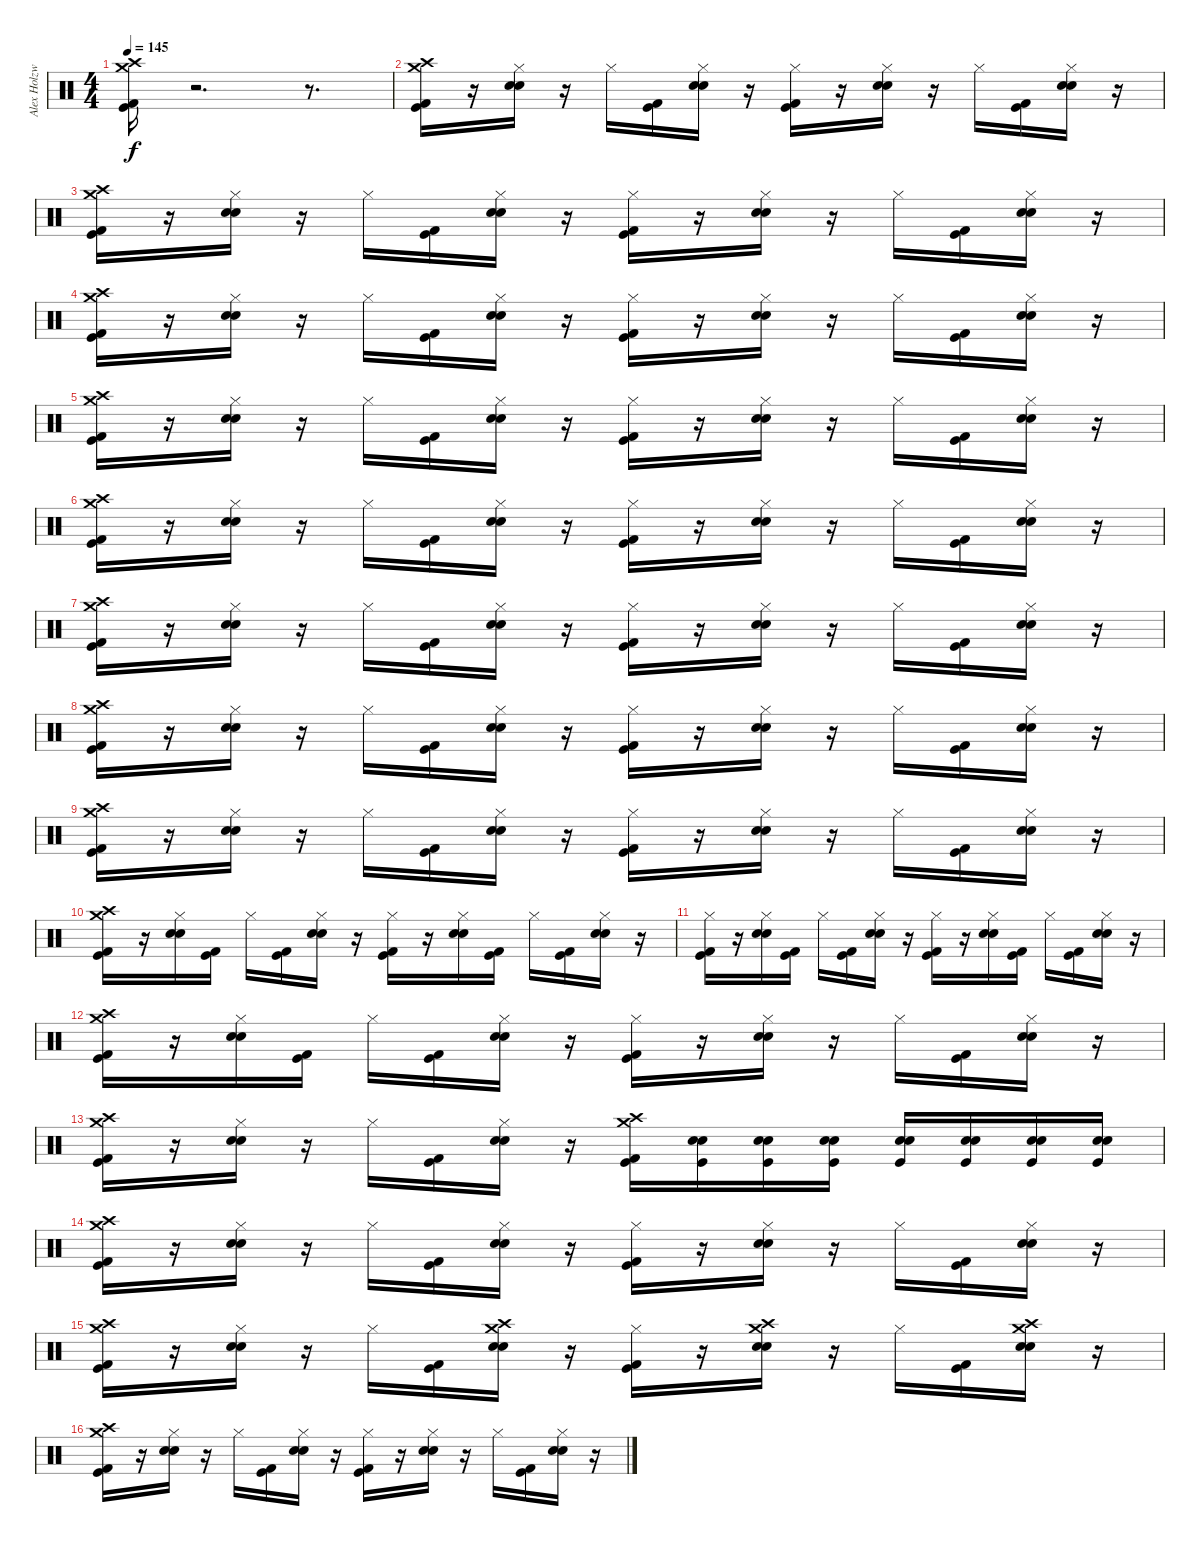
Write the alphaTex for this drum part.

\track ("Alex Holzwarth" "Alex Holzw") {instrument percussion}
\staff {score}
\articulation defaults
\ts (4 4)
\tempo 145
\clef neutral
\ks c
("Crash high (hit)" "Crash medium (hit)" "Kick (hit) 2" "Kick (hit)").16{dy f} r.2{d} r.8{d} |
("Crash medium (hit)" "Crash high (hit)" "Kick (hit) 2" "Kick (hit)").16 r.16 ("Hi-Hat (closed)" "Electric Snare (hit)" "Snare (hit) 2").16 r.16 "Hi-Hat (closed)".16 ("Kick (hit) 2" "Kick (hit)").16 ("Electric Snare (hit)" "Snare (hit) 2" "Hi-Hat (closed)").16 r.16 ("Hi-Hat (closed)" "Kick (hit) 2" "Kick (hit)").16 r.16 ("Hi-Hat (closed)" "Electric Snare (hit)" "Snare (hit) 2").16 r.16 "Hi-Hat (closed)".16 ("Kick (hit) 2" "Kick (hit)").16 ("Electric Snare (hit)" "Snare (hit) 2" "Hi-Hat (closed)").16 r.16 |
("Crash medium (hit)" "Crash high (hit)" "Kick (hit) 2" "Kick (hit)").16 r.16 ("Hi-Hat (closed)" "Electric Snare (hit)" "Snare (hit) 2").16 r.16 "Hi-Hat (closed)".16 ("Kick (hit) 2" "Kick (hit)").16 ("Electric Snare (hit)" "Snare (hit) 2" "Hi-Hat (closed)").16 r.16 ("Hi-Hat (closed)" "Kick (hit) 2" "Kick (hit)").16 r.16 ("Hi-Hat (closed)" "Electric Snare (hit)" "Snare (hit) 2").16 r.16 "Hi-Hat (closed)".16 ("Kick (hit) 2" "Kick (hit)").16 ("Electric Snare (hit)" "Snare (hit) 2" "Hi-Hat (closed)").16 r.16 |
("Crash medium (hit)" "Crash high (hit)" "Kick (hit) 2" "Kick (hit)").16 r.16 ("Hi-Hat (closed)" "Electric Snare (hit)" "Snare (hit) 2").16 r.16 "Hi-Hat (closed)".16 ("Kick (hit) 2" "Kick (hit)").16 ("Electric Snare (hit)" "Snare (hit) 2" "Hi-Hat (closed)").16 r.16 ("Hi-Hat (closed)" "Kick (hit) 2" "Kick (hit)").16 r.16 ("Hi-Hat (closed)" "Electric Snare (hit)" "Snare (hit) 2").16 r.16 "Hi-Hat (closed)".16 ("Kick (hit) 2" "Kick (hit)").16 ("Electric Snare (hit)" "Snare (hit) 2" "Hi-Hat (closed)").16 r.16 |
("Crash medium (hit)" "Crash high (hit)" "Kick (hit) 2" "Kick (hit)").16 r.16 ("Hi-Hat (closed)" "Electric Snare (hit)" "Snare (hit) 2").16 r.16 "Hi-Hat (closed)".16 ("Kick (hit) 2" "Kick (hit)").16 ("Electric Snare (hit)" "Snare (hit) 2" "Hi-Hat (closed)").16 r.16 ("Hi-Hat (closed)" "Kick (hit) 2" "Kick (hit)").16 r.16 ("Hi-Hat (closed)" "Electric Snare (hit)" "Snare (hit) 2").16 r.16 "Hi-Hat (closed)".16 ("Kick (hit) 2" "Kick (hit)").16 ("Electric Snare (hit)" "Snare (hit) 2" "Hi-Hat (closed)").16 r.16 |
("Crash medium (hit)" "Crash high (hit)" "Kick (hit) 2" "Kick (hit)").16 r.16 ("Hi-Hat (closed)" "Electric Snare (hit)" "Snare (hit) 2").16 r.16 "Hi-Hat (closed)".16 ("Kick (hit) 2" "Kick (hit)").16 ("Electric Snare (hit)" "Snare (hit) 2" "Hi-Hat (closed)").16 r.16 ("Hi-Hat (closed)" "Kick (hit) 2" "Kick (hit)").16 r.16 ("Hi-Hat (closed)" "Electric Snare (hit)" "Snare (hit) 2").16 r.16 "Hi-Hat (closed)".16 ("Kick (hit) 2" "Kick (hit)").16 ("Electric Snare (hit)" "Snare (hit) 2" "Hi-Hat (closed)").16 r.16 |
("Crash medium (hit)" "Crash high (hit)" "Kick (hit) 2" "Kick (hit)").16 r.16 ("Hi-Hat (closed)" "Electric Snare (hit)" "Snare (hit) 2").16 r.16 "Hi-Hat (closed)".16 ("Kick (hit) 2" "Kick (hit)").16 ("Electric Snare (hit)" "Snare (hit) 2" "Hi-Hat (closed)").16 r.16 ("Hi-Hat (closed)" "Kick (hit) 2" "Kick (hit)").16 r.16 ("Hi-Hat (closed)" "Electric Snare (hit)" "Snare (hit) 2").16 r.16 "Hi-Hat (closed)".16 ("Kick (hit) 2" "Kick (hit)").16 ("Electric Snare (hit)" "Snare (hit) 2" "Hi-Hat (closed)").16 r.16 |
("Crash medium (hit)" "Crash high (hit)" "Kick (hit) 2" "Kick (hit)").16 r.16 ("Hi-Hat (closed)" "Electric Snare (hit)" "Snare (hit) 2").16 r.16 "Hi-Hat (closed)".16 ("Kick (hit) 2" "Kick (hit)").16 ("Electric Snare (hit)" "Snare (hit) 2" "Hi-Hat (closed)").16 r.16 ("Hi-Hat (closed)" "Kick (hit) 2" "Kick (hit)").16 r.16 ("Hi-Hat (closed)" "Electric Snare (hit)" "Snare (hit) 2").16 r.16 "Hi-Hat (closed)".16 ("Kick (hit) 2" "Kick (hit)").16 ("Electric Snare (hit)" "Snare (hit) 2" "Hi-Hat (closed)").16 r.16 |
("Crash medium (hit)" "Crash high (hit)" "Kick (hit) 2" "Kick (hit)").16 r.16 ("Hi-Hat (closed)" "Electric Snare (hit)" "Snare (hit) 2").16 r.16 "Hi-Hat (closed)".16 ("Kick (hit) 2" "Kick (hit)").16 ("Electric Snare (hit)" "Snare (hit) 2" "Hi-Hat (closed)").16 r.16 ("Hi-Hat (closed)" "Kick (hit) 2" "Kick (hit)").16 r.16 ("Hi-Hat (closed)" "Electric Snare (hit)" "Snare (hit) 2").16 r.16 "Hi-Hat (closed)".16 ("Kick (hit) 2" "Kick (hit)").16 ("Electric Snare (hit)" "Snare (hit) 2" "Hi-Hat (closed)").16 r.16 |
("Crash medium (hit)" "Crash high (hit)" "Kick (hit) 2" "Kick (hit)").16 r.16 ("Hi-Hat (closed)" "Electric Snare (hit)" "Snare (hit) 2").16 ("Kick (hit) 2" "Kick (hit)").16 "Hi-Hat (closed)".16 ("Kick (hit) 2" "Kick (hit)").16 ("Electric Snare (hit)" "Snare (hit) 2" "Hi-Hat (closed)").16 r.16 ("Hi-Hat (closed)" "Kick (hit) 2" "Kick (hit)").16 r.16 ("Hi-Hat (closed)" "Electric Snare (hit)" "Snare (hit) 2").16 ("Kick (hit) 2" "Kick (hit)").16 "Hi-Hat (closed)".16 ("Kick (hit) 2" "Kick (hit)").16 ("Electric Snare (hit)" "Snare (hit) 2" "Hi-Hat (closed)").16 r.16 |
("Hi-Hat (closed)" "Kick (hit) 2" "Kick (hit)").16 r.16 ("Hi-Hat (closed)" "Electric Snare (hit)" "Snare (hit) 2").16 ("Kick (hit) 2" "Kick (hit)").16 "Hi-Hat (closed)".16 ("Kick (hit) 2" "Kick (hit)").16 ("Electric Snare (hit)" "Snare (hit) 2" "Hi-Hat (closed)").16 r.16 ("Hi-Hat (closed)" "Kick (hit) 2" "Kick (hit)").16 r.16 ("Hi-Hat (closed)" "Electric Snare (hit)" "Snare (hit) 2").16 ("Kick (hit) 2" "Kick (hit)").16 "Hi-Hat (closed)".16 ("Kick (hit) 2" "Kick (hit)").16 ("Electric Snare (hit)" "Snare (hit) 2" "Hi-Hat (closed)").16 r.16 |
("Crash medium (hit)" "Crash high (hit)" "Kick (hit) 2" "Kick (hit)").16 r.16 ("Hi-Hat (closed)" "Electric Snare (hit)" "Snare (hit) 2").16 ("Kick (hit) 2" "Kick (hit)").16 "Hi-Hat (closed)".16 ("Kick (hit) 2" "Kick (hit)").16 ("Electric Snare (hit)" "Snare (hit) 2" "Hi-Hat (closed)").16 r.16 ("Hi-Hat (closed)" "Kick (hit) 2" "Kick (hit)").16 r.16 ("Hi-Hat (closed)" "Electric Snare (hit)" "Snare (hit) 2").16 r.16 "Hi-Hat (closed)".16 ("Kick (hit) 2" "Kick (hit)").16 ("Electric Snare (hit)" "Snare (hit) 2" "Hi-Hat (closed)").16 r.16 |
("Crash medium (hit)" "Crash high (hit)" "Kick (hit) 2" "Kick (hit)").16 r.16 ("Hi-Hat (closed)" "Electric Snare (hit)" "Snare (hit) 2").16 r.16 "Hi-Hat (closed)".16 ("Kick (hit) 2" "Kick (hit)").16 ("Electric Snare (hit)" "Snare (hit) 2" "Hi-Hat (closed)").16 r.16 ("Crash high (hit)" "Crash medium (hit)" "Kick (hit) 2" "Kick (hit)").16 ("Electric Snare (hit)" "Kick (hit)" "Snare (hit) 2").16 ("Electric Snare (hit)" "Kick (hit)" "Snare (hit) 2").16 ("Electric Snare (hit)" "Kick (hit)" "Snare (hit) 2").16 ("Electric Snare (hit)" "Kick (hit)" "Snare (hit) 2").16 ("Electric Snare (hit)" "Kick (hit)" "Snare (hit) 2").16 ("Electric Snare (hit)" "Kick (hit)" "Snare (hit) 2").16 ("Electric Snare (hit)" "Kick (hit)" "Snare (hit) 2").16 |
("Crash medium (hit)" "Crash high (hit)" "Kick (hit) 2" "Kick (hit)").16 r.16 ("Hi-Hat (closed)" "Electric Snare (hit)" "Snare (hit) 2").16 r.16 "Hi-Hat (closed)".16 ("Kick (hit) 2" "Kick (hit)").16 ("Electric Snare (hit)" "Snare (hit) 2" "Hi-Hat (closed)").16 r.16 ("Hi-Hat (closed)" "Kick (hit) 2" "Kick (hit)").16 r.16 ("Hi-Hat (closed)" "Electric Snare (hit)" "Snare (hit) 2").16 r.16 "Hi-Hat (closed)".16 ("Kick (hit) 2" "Kick (hit)").16 ("Electric Snare (hit)" "Snare (hit) 2" "Hi-Hat (closed)").16 r.16 |
("Crash medium (hit)" "Crash high (hit)" "Kick (hit) 2" "Kick (hit)").16 r.16 ("Hi-Hat (closed)" "Electric Snare (hit)" "Snare (hit) 2").16 r.16 "Hi-Hat (closed)".16 ("Kick (hit) 2" "Kick (hit)").16 ("Crash medium (hit)" "Crash high (hit)" "Electric Snare (hit)" "Snare (hit) 2").16 r.16 ("Hi-Hat (closed)" "Kick (hit) 2" "Kick (hit)").16 r.16 ("Crash medium (hit)" "Crash high (hit)" "Electric Snare (hit)" "Snare (hit) 2").16 r.16 "Hi-Hat (closed)".16 ("Kick (hit) 2" "Kick (hit)").16 ("Crash medium (hit)" "Crash high (hit)" "Electric Snare (hit)" "Snare (hit) 2").16 r.16 |
("Crash medium (hit)" "Crash high (hit)" "Kick (hit) 2" "Kick (hit)").16 r.16 ("Hi-Hat (closed)" "Electric Snare (hit)" "Snare (hit) 2").16 r.16 "Hi-Hat (closed)".16 ("Kick (hit) 2" "Kick (hit)").16 ("Electric Snare (hit)" "Snare (hit) 2" "Hi-Hat (closed)").16 r.16 ("Hi-Hat (closed)" "Kick (hit) 2" "Kick (hit)").16 r.16 ("Hi-Hat (closed)" "Electric Snare (hit)" "Snare (hit) 2").16 r.16 "Hi-Hat (closed)".16 ("Kick (hit) 2" "Kick (hit)").16 ("Electric Snare (hit)" "Snare (hit) 2" "Hi-Hat (closed)").16 r.16
